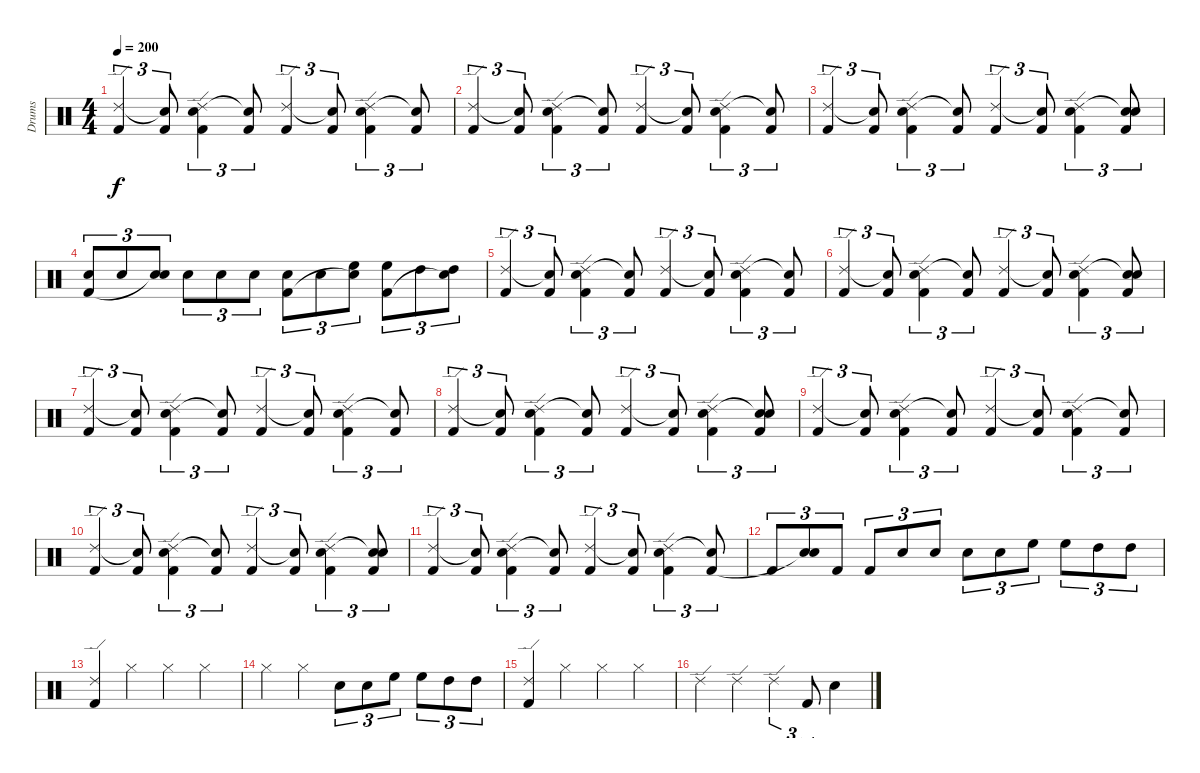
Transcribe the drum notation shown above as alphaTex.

\track ("Drums" "Drums") {instrument percussion}
\staff {score}
\articulation defaults
\ts (4 4)
\tempo 200
\clef neutral
\ks c
("Ride (edge) 2" "Kick (hit) 2").4{tu (3 2) dy f} ("Snare (hit)"{t} "Kick (hit) 2").8{tu (3 2)} ("Ride (edge) 2" "Snare (hit) 2" "Kick (hit) 2").4{tu (3 2)} ("Snare (hit)"{t} "Kick (hit) 2").8{tu (3 2)} ("Ride (edge) 2" "Kick (hit) 2").4{tu (3 2)} ("Snare (hit)"{t} "Kick (hit) 2").8{tu (3 2)} ("Ride (edge) 2" "Snare (hit) 2" "Kick (hit) 2").4{tu (3 2)} ("Snare (hit)"{t} "Kick (hit) 2").8{tu (3 2)} |
("Ride (edge) 2" "Kick (hit) 2").4{tu (3 2)} ("Snare (hit)"{t} "Kick (hit) 2").8{tu (3 2)} ("Ride (edge) 2" "Snare (hit) 2" "Kick (hit) 2").4{tu (3 2)} ("Snare (hit)"{t} "Kick (hit) 2").8{tu (3 2)} ("Ride (edge) 2" "Kick (hit) 2").4{tu (3 2)} ("Snare (hit)"{t} "Kick (hit) 2").8{tu (3 2)} ("Ride (edge) 2" "Snare (hit) 2" "Kick (hit) 2").4{tu (3 2)} ("Snare (hit)"{t} "Kick (hit) 2").8{tu (3 2)} |
("Ride (edge) 2" "Kick (hit) 2").4{tu (3 2)} ("Snare (hit)"{t} "Kick (hit) 2").8{tu (3 2)} ("Ride (edge) 2" "Snare (hit) 2" "Kick (hit) 2").4{tu (3 2)} ("Snare (hit)"{t} "Kick (hit) 2").8{tu (3 2)} ("Ride (edge) 2" "Kick (hit) 2").4{tu (3 2)} ("Snare (hit)"{t} "Kick (hit) 2").8{tu (3 2)} ("Ride (edge) 2" "Snare (hit) 2" "Kick (hit) 2").4{tu (3 2)} ("Snare (hit)"{t} "Snare (hit) 2" "Kick (hit) 2").8{tu (3 2)} |
("Snare (hit) 2" "Kick (hit) 2").8{tu (3 2)} "Snare (hit) 2".8{tu (3 2)} ("Snare (hit) 2" "Snare (hit)"{t}).8{tu (3 2)} "Snare (hit) 2".8{tu (3 2)} "Snare (hit) 2".8{tu (3 2)} "Snare (hit) 2".8{tu (3 2)} ("Snare (hit) 2" "Kick (hit) 2").8{tu (3 2)} "Snare (hit) 2".8{tu (3 2)} ("High Floor Tom (hit)" "Snare (hit)"{t}).8{tu (3 2)} ("High Floor Tom (hit)" "Kick (hit) 2").8{tu (3 2)} "High Tom (hit)".8{tu (3 2)} ("High Tom (hit)" "Snare (hit)"{t}).8{tu (3 2)} |
("Ride (edge) 2" "Kick (hit) 2").4{tu (3 2)} ("Snare (hit)"{t} "Kick (hit) 2").8{tu (3 2)} ("Ride (edge) 2" "Snare (hit) 2" "Kick (hit) 2").4{tu (3 2)} ("Snare (hit)"{t} "Kick (hit) 2").8{tu (3 2)} ("Ride (edge) 2" "Kick (hit) 2").4{tu (3 2)} ("Snare (hit)"{t} "Kick (hit) 2").8{tu (3 2)} ("Ride (edge) 2" "Snare (hit) 2" "Kick (hit) 2").4{tu (3 2)} ("Snare (hit)"{t} "Kick (hit) 2").8{tu (3 2)} |
("Ride (edge) 2" "Kick (hit) 2").4{tu (3 2)} ("Snare (hit)"{t} "Kick (hit) 2").8{tu (3 2)} ("Ride (edge) 2" "Snare (hit) 2" "Kick (hit) 2").4{tu (3 2)} ("Snare (hit)"{t} "Kick (hit) 2").8{tu (3 2)} ("Ride (edge) 2" "Kick (hit) 2").4{tu (3 2)} ("Snare (hit)"{t} "Kick (hit) 2").8{tu (3 2)} ("Ride (edge) 2" "Snare (hit) 2" "Kick (hit) 2").4{tu (3 2)} ("Snare (hit)"{t} "Snare (hit) 2" "Kick (hit) 2").8{tu (3 2)} |
("Ride (edge) 2" "Kick (hit) 2").4{tu (3 2)} ("Snare (hit)"{t} "Kick (hit) 2").8{tu (3 2)} ("Ride (edge) 2" "Snare (hit) 2" "Kick (hit) 2").4{tu (3 2)} ("Snare (hit)"{t} "Kick (hit) 2").8{tu (3 2)} ("Ride (edge) 2" "Kick (hit) 2").4{tu (3 2)} ("Snare (hit)"{t} "Kick (hit) 2").8{tu (3 2)} ("Ride (edge) 2" "Snare (hit) 2" "Kick (hit) 2").4{tu (3 2)} ("Snare (hit)"{t} "Kick (hit) 2").8{tu (3 2)} |
("Ride (edge) 2" "Kick (hit) 2").4{tu (3 2)} ("Snare (hit)"{t} "Kick (hit) 2").8{tu (3 2)} ("Ride (edge) 2" "Snare (hit) 2" "Kick (hit) 2").4{tu (3 2)} ("Snare (hit)"{t} "Kick (hit) 2").8{tu (3 2)} ("Ride (edge) 2" "Kick (hit) 2").4{tu (3 2)} ("Snare (hit)"{t} "Kick (hit) 2").8{tu (3 2)} ("Ride (edge) 2" "Snare (hit) 2" "Kick (hit) 2").4{tu (3 2)} ("Snare (hit)"{t} "Snare (hit) 2" "Kick (hit) 2").8{tu (3 2)} |
("Ride (edge) 2" "Kick (hit) 2").4{tu (3 2)} ("Snare (hit)"{t} "Kick (hit) 2").8{tu (3 2)} ("Ride (edge) 2" "Snare (hit) 2" "Kick (hit) 2").4{tu (3 2)} ("Snare (hit)"{t} "Kick (hit) 2").8{tu (3 2)} ("Ride (edge) 2" "Kick (hit) 2").4{tu (3 2)} ("Snare (hit)"{t} "Kick (hit) 2").8{tu (3 2)} ("Ride (edge) 2" "Snare (hit) 2" "Kick (hit) 2").4{tu (3 2)} ("Snare (hit)"{t} "Kick (hit) 2").8{tu (3 2)} |
("Ride (edge) 2" "Kick (hit) 2").4{tu (3 2)} ("Snare (hit)"{t} "Kick (hit) 2").8{tu (3 2)} ("Ride (edge) 2" "Snare (hit) 2" "Kick (hit) 2").4{tu (3 2)} ("Snare (hit)"{t} "Kick (hit) 2").8{tu (3 2)} ("Ride (edge) 2" "Kick (hit) 2").4{tu (3 2)} ("Snare (hit)"{t} "Kick (hit) 2").8{tu (3 2)} ("Ride (edge) 2" "Snare (hit) 2" "Kick (hit) 2").4{tu (3 2)} ("Snare (hit)"{t} "Snare (hit) 2" "Kick (hit) 2").8{tu (3 2)} |
("Ride (edge) 2" "Kick (hit) 2").4{tu (3 2)} ("Snare (hit)"{t} "Kick (hit) 2").8{tu (3 2)} ("Ride (edge) 2" "Snare (hit) 2" "Kick (hit) 2").4{tu (3 2)} ("Snare (hit)"{t} "Kick (hit) 2").8{tu (3 2)} ("Ride (edge) 2" "Kick (hit) 2").4{tu (3 2)} ("Snare (hit)"{t} "Kick (hit) 2").8{tu (3 2)} ("Ride (edge) 2" "Snare (hit) 2" "Kick (hit) 2").4{tu (3 2)} ("Snare (hit)"{t} "Kick (hit) 2").8{tu (3 2)} |
"Kick (hit) 2".8{tu (3 2)} ("Snare (hit) 2" "Snare (hit)"{t}).8{tu (3 2)} "Kick (hit) 2".8{tu (3 2)} "Kick (hit) 2".8{tu (3 2)} "Snare (hit) 2".8{tu (3 2)} "Snare (hit) 2".8{tu (3 2)} "Snare (hit) 2".8{tu (3 2)} "Snare (hit) 2".8{tu (3 2)} "High Floor Tom (hit)".8{tu (3 2)} "High Floor Tom (hit)".8{tu (3 2)} "High Tom (hit)".8{tu (3 2)} "High Tom (hit)".8{tu (3 2)} |
("Ride (edge) 2" "Kick (hit) 2").4 "Hi-Hat (closed)".4 "Hi-Hat (closed)".4 "Hi-Hat (closed)".4 |
"Hi-Hat (closed)".4 "Hi-Hat (closed)".4 "Snare (hit) 2".8{tu (3 2)} "Snare (hit) 2".8{tu (3 2)} "High Floor Tom (hit)".8{tu (3 2)} "High Floor Tom (hit)".8{tu (3 2)} "High Tom (hit)".8{tu (3 2)} "High Tom (hit)".8{tu (3 2)} |
("Ride (edge) 2" "Kick (hit) 2").4 "Hi-Hat (closed)".4 "Hi-Hat (closed)".4 "Hi-Hat (closed)".4 |
"Ride (edge) 2".4 "Ride (edge) 2".4 "Ride (edge) 2".4{tu (3 2)} "Kick (hit) 2".8{tu (3 2)} "Snare (hit) 2".4
